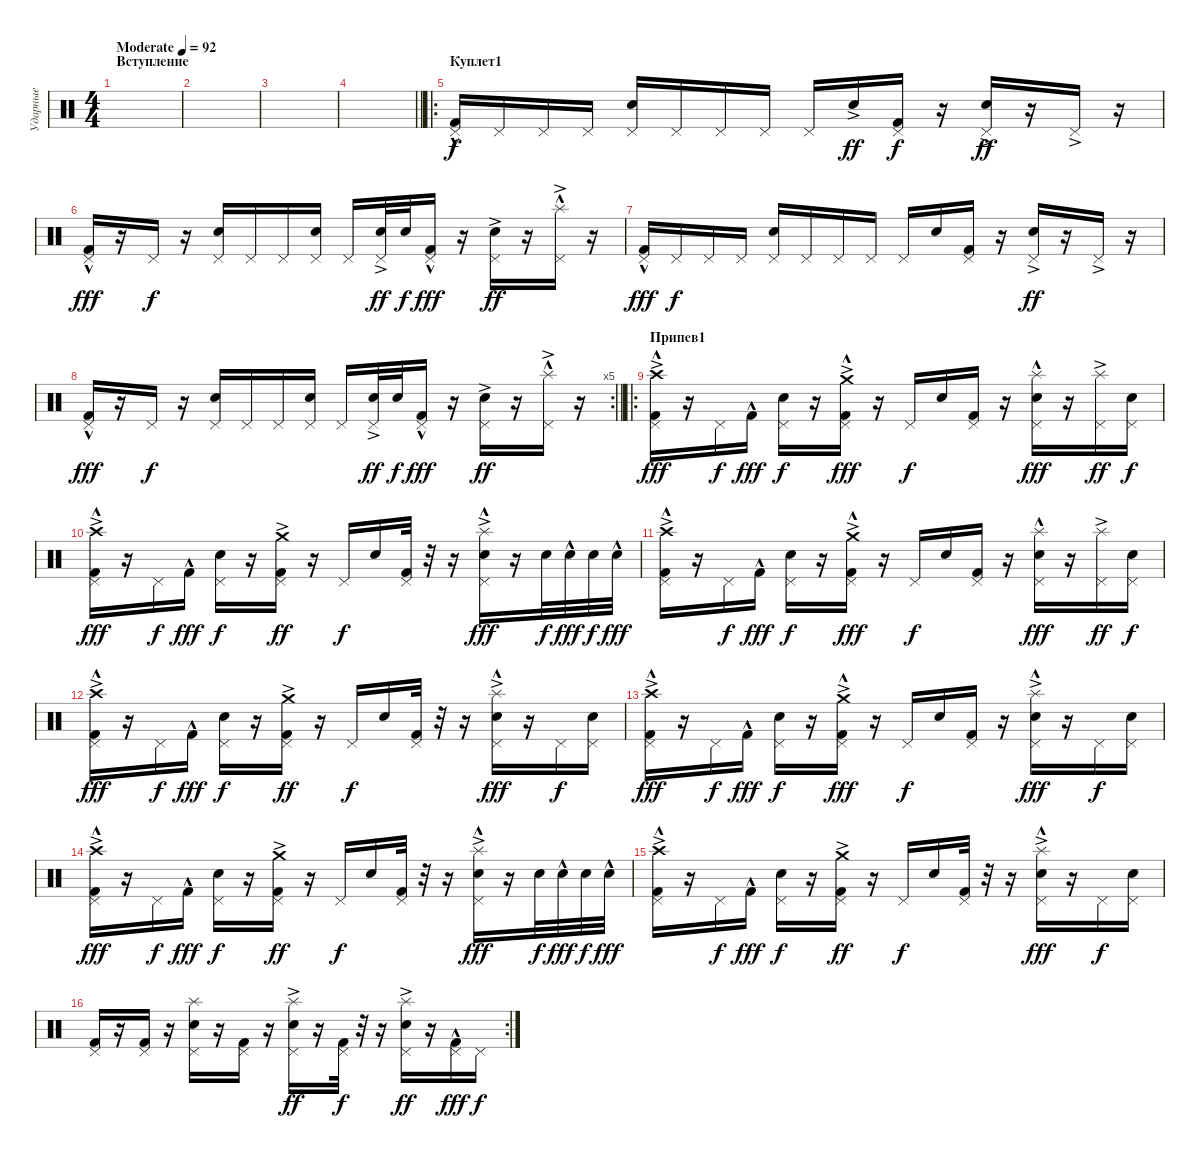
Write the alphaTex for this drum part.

\track ("Ударные" "Ударные") {instrument percussion}
\staff {score}
\articulation defaults
\ts (4 4)
\section ("" "Вступление")
\tempo (92 "Moderate")
\clef neutral
\ks c
|
|
|
\barLineRight lightlight
|
\ro
\section ("" "Куплет1")
("Kick (hit) 2"{hac} "Pedal Hi-Hat (hit)").16 "Pedal Hi-Hat (hit)".16{dy f} "Pedal Hi-Hat (hit)".16 "Pedal Hi-Hat (hit)".16 ("Electric Snare (hit)" "Pedal Hi-Hat (hit)").16 "Pedal Hi-Hat (hit)".16 "Pedal Hi-Hat (hit)".16 "Pedal Hi-Hat (hit)".16 "Pedal Hi-Hat (hit)".16 "Electric Snare (hit)"{ac}.16{dy ff} ("Kick (hit) 2" "Pedal Hi-Hat (hit)").16{dy f} r.16 ("Electric Snare (hit)" "Pedal Hi-Hat (hit)"{ac}).16{dy ff} r.16 "Pedal Hi-Hat (hit)"{ac}.16 r.16 |
("Kick (hit) 2"{hac} "Pedal Hi-Hat (hit)").16{dy fff} r.16 "Pedal Hi-Hat (hit)".16{dy f} r.16 ("Electric Snare (hit)" "Pedal Hi-Hat (hit)").16 "Pedal Hi-Hat (hit)".16 "Pedal Hi-Hat (hit)".16 ("Electric Snare (hit)" "Pedal Hi-Hat (hit)").16 "Pedal Hi-Hat (hit)".16 ("Electric Snare (hit)"{ac} "Pedal Hi-Hat (hit)").32{dy ff} "Electric Snare (hit)".32{dy f} ("Kick (hit) 2"{hac} "Pedal Hi-Hat (hit)").16{dy fff} r.16 ("Electric Snare (hit)" "Pedal Hi-Hat (hit)"{ac}).16{dy ff} r.16 ("Splash (hit)"{hac} "Pedal Hi-Hat (hit)"{ac}).16 r.16 |
("Kick (hit) 2"{hac} "Pedal Hi-Hat (hit)").16{dy fff} "Pedal Hi-Hat (hit)".16{dy f} "Pedal Hi-Hat (hit)".16 "Pedal Hi-Hat (hit)".16 ("Electric Snare (hit)" "Pedal Hi-Hat (hit)").16 "Pedal Hi-Hat (hit)".16 "Pedal Hi-Hat (hit)".16 "Pedal Hi-Hat (hit)".16 "Pedal Hi-Hat (hit)".16 "Electric Snare (hit)".16 ("Kick (hit) 2" "Pedal Hi-Hat (hit)").16 r.16 ("Electric Snare (hit)" "Pedal Hi-Hat (hit)"{ac}).16{dy ff} r.16 "Pedal Hi-Hat (hit)"{ac}.16 r.16 |
\rc 5
\barLineRight lightlight
("Kick (hit) 2"{hac} "Pedal Hi-Hat (hit)").16{dy fff} r.16 "Pedal Hi-Hat (hit)".16{dy f} r.16 ("Electric Snare (hit)" "Pedal Hi-Hat (hit)").16 "Pedal Hi-Hat (hit)".16 "Pedal Hi-Hat (hit)".16 ("Electric Snare (hit)" "Pedal Hi-Hat (hit)").16 "Pedal Hi-Hat (hit)".16 ("Electric Snare (hit)"{ac} "Pedal Hi-Hat (hit)").32{dy ff} "Electric Snare (hit)".32{dy f} ("Kick (hit) 2"{hac} "Pedal Hi-Hat (hit)").16{dy fff} r.16 ("Electric Snare (hit)" "Pedal Hi-Hat (hit)"{ac}).16{dy ff} r.16 ("Splash (hit)"{hac} "Pedal Hi-Hat (hit)"{ac}).16 r.16 |
\ro
\section ("" "Припев1")
("Crash high (hit)"{ac} "Kick (hit) 2"{hac} "Pedal Hi-Hat (hit)").16{dy fff} r.16 "Pedal Hi-Hat (hit)".16{dy f} "Kick (hit) 2"{hac}.16{dy fff} ("Electric Snare (hit)" "Pedal Hi-Hat (hit)").16{dy f} r.16 ("Crash medium (hit)"{ac} "Kick (hit) 2"{hac} "Pedal Hi-Hat (hit)").16{dy fff} r.16 "Pedal Hi-Hat (hit)".16{dy f} "Electric Snare (hit)".16 ("Kick (hit) 2" "Pedal Hi-Hat (hit)").16 r.16 ("Splash (hit)" "Electric Snare (hit)" "Pedal Hi-Hat (hit)"{hac}).16{dy fff} r.16 ("Splash (hit)"{ac} "Pedal Hi-Hat (hit)").16{dy ff} ("Electric Snare (hit)" "Pedal Hi-Hat (hit)").16{dy f} |
("Crash high (hit)"{ac} "Kick (hit) 2"{hac} "Pedal Hi-Hat (hit)").16{dy fff} r.16 "Pedal Hi-Hat (hit)".16{dy f} "Kick (hit) 2"{hac}.16{dy fff} ("Electric Snare (hit)" "Pedal Hi-Hat (hit)").16{dy f} r.16 ("Crash medium (hit)"{ac} "Kick (hit) 2" "Pedal Hi-Hat (hit)").16{dy ff} r.16 "Pedal Hi-Hat (hit)".16{dy f} "Electric Snare (hit)".16 ("Kick (hit) 2" "Pedal Hi-Hat (hit)").32 r.32 r.16 ("Splash (hit)"{ac} "Electric Snare (hit)" "Pedal Hi-Hat (hit)"{hac}).16{dy fff} r.16 "Electric Snare (hit)".32{dy f} "Electric Snare (hit)"{hac}.32{dy fff} "Electric Snare (hit)".32{dy f} "Electric Snare (hit)"{hac}.32{dy fff} |
("Crash high (hit)"{ac} "Kick (hit) 2"{hac} "Pedal Hi-Hat (hit)").16 r.16 "Pedal Hi-Hat (hit)".16{dy f} "Kick (hit) 2"{hac}.16{dy fff} ("Electric Snare (hit)" "Pedal Hi-Hat (hit)").16{dy f} r.16 ("Crash medium (hit)"{ac} "Kick (hit) 2"{hac} "Pedal Hi-Hat (hit)").16{dy fff} r.16 "Pedal Hi-Hat (hit)".16{dy f} "Electric Snare (hit)".16 ("Kick (hit) 2" "Pedal Hi-Hat (hit)").16 r.16 ("Splash (hit)" "Electric Snare (hit)" "Pedal Hi-Hat (hit)"{hac}).16{dy fff} r.16 ("Splash (hit)"{ac} "Pedal Hi-Hat (hit)").16{dy ff} ("Electric Snare (hit)" "Pedal Hi-Hat (hit)").16{dy f} |
("Crash high (hit)"{ac} "Kick (hit) 2"{hac} "Pedal Hi-Hat (hit)").16{dy fff} r.16 "Pedal Hi-Hat (hit)".16{dy f} "Kick (hit) 2"{hac}.16{dy fff} ("Electric Snare (hit)" "Pedal Hi-Hat (hit)").16{dy f} r.16 ("Crash medium (hit)"{ac} "Kick (hit) 2" "Pedal Hi-Hat (hit)").16{dy ff} r.16 "Pedal Hi-Hat (hit)".16{dy f} "Electric Snare (hit)".16 ("Kick (hit) 2" "Pedal Hi-Hat (hit)").32 r.32 r.16 ("Splash (hit)"{ac} "Electric Snare (hit)" "Pedal Hi-Hat (hit)"{hac}).16{dy fff} r.16 "Pedal Hi-Hat (hit)".16{dy f} ("Electric Snare (hit)" "Pedal Hi-Hat (hit)").16 |
("Crash high (hit)"{ac} "Kick (hit) 2"{hac} "Pedal Hi-Hat (hit)").16{dy fff} r.16 "Pedal Hi-Hat (hit)".16{dy f} "Kick (hit) 2"{hac}.16{dy fff} ("Electric Snare (hit)" "Pedal Hi-Hat (hit)").16{dy f} r.16 ("Crash medium (hit)"{ac} "Kick (hit) 2"{hac} "Pedal Hi-Hat (hit)").16{dy fff} r.16 "Pedal Hi-Hat (hit)".16{dy f} "Electric Snare (hit)".16 ("Kick (hit) 2" "Pedal Hi-Hat (hit)").16 r.16 ("Splash (hit)"{ac} "Electric Snare (hit)" "Pedal Hi-Hat (hit)"{hac}).16{dy fff} r.16 "Pedal Hi-Hat (hit)".16{dy f} ("Electric Snare (hit)" "Pedal Hi-Hat (hit)").16 |
("Crash high (hit)"{ac} "Kick (hit) 2"{hac} "Pedal Hi-Hat (hit)").16{dy fff} r.16 "Pedal Hi-Hat (hit)".16{dy f} "Kick (hit) 2"{hac}.16{dy fff} ("Electric Snare (hit)" "Pedal Hi-Hat (hit)").16{dy f} r.16 ("Crash medium (hit)"{ac} "Kick (hit) 2" "Pedal Hi-Hat (hit)").16{dy ff} r.16 "Pedal Hi-Hat (hit)".16{dy f} "Electric Snare (hit)".16 ("Kick (hit) 2" "Pedal Hi-Hat (hit)").32 r.32 r.16 ("Splash (hit)"{ac} "Electric Snare (hit)" "Pedal Hi-Hat (hit)"{hac}).16{dy fff} r.16 "Electric Snare (hit)".32{dy f} "Electric Snare (hit)"{hac}.32{dy fff} "Electric Snare (hit)".32{dy f} "Electric Snare (hit)"{hac}.32{dy fff} |
("Crash high (hit)"{ac} "Kick (hit) 2"{hac} "Pedal Hi-Hat (hit)").16 r.16 "Pedal Hi-Hat (hit)".16{dy f} "Kick (hit) 2"{hac}.16{dy fff} ("Electric Snare (hit)" "Pedal Hi-Hat (hit)").16{dy f} r.16 ("Crash medium (hit)"{ac} "Kick (hit) 2" "Pedal Hi-Hat (hit)").16{dy ff} r.16 "Pedal Hi-Hat (hit)".16{dy f} "Electric Snare (hit)".16 ("Kick (hit) 2" "Pedal Hi-Hat (hit)").32 r.32 r.16 ("Splash (hit)"{ac} "Electric Snare (hit)" "Pedal Hi-Hat (hit)"{hac}).16{dy fff} r.16 "Pedal Hi-Hat (hit)".16{dy f} ("Electric Snare (hit)" "Pedal Hi-Hat (hit)").16 |
\rc 2
("Kick (hit) 2" "Pedal Hi-Hat (hit)").16 r.16 ("Kick (hit) 2" "Pedal Hi-Hat (hit)").16 r.16 ("Splash (hit)" "Electric Snare (hit)" "Pedal Hi-Hat (hit)").16 r.16 ("Kick (hit) 2" "Pedal Hi-Hat (hit)").16 r.16 ("Splash (hit)"{ac} "Electric Snare (hit)" "Pedal Hi-Hat (hit)").16{dy ff} r.16 ("Kick (hit) 2" "Pedal Hi-Hat (hit)").32{dy f} r.32 r.16 ("Splash (hit)"{ac} "Electric Snare (hit)" "Pedal Hi-Hat (hit)").16{dy ff} r.16 ("Kick (hit) 2"{hac} "Pedal Hi-Hat (hit)").16{dy fff} "Pedal Hi-Hat (hit)".16{dy f}
